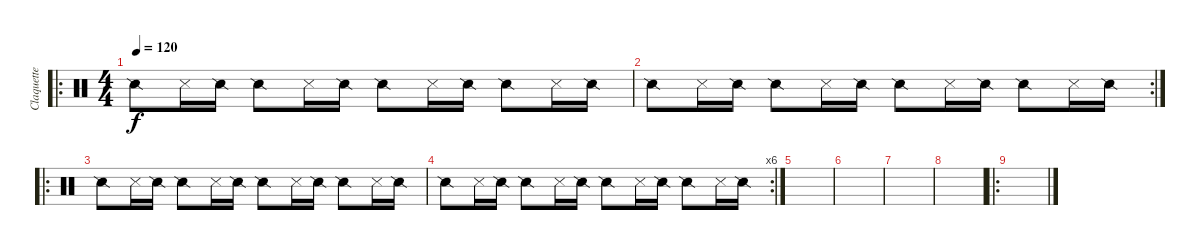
\track ("Claquette" "Claquette") {instrument percussion}
\staff {score}
\articulation defaults
\ro
\ts (4 4)
\tempo 120
\clef neutral
\ks c "Snare (side stick) 2".8{dy f} "Metronome (hit)".16 "Snare (side stick) 2".16 "Snare (side stick) 2".8 "Metronome (hit)".16 "Snare (side stick) 2".16 "Snare (side stick) 2".8 "Metronome (hit)".16 "Snare (side stick) 2".16 "Snare (side stick) 2".8 "Metronome (hit)".16 "Snare (side stick) 2".16
|
\rc 2 "Snare (side stick) 2".8 "Metronome (hit)".16 "Snare (side stick) 2".16 "Snare (side stick) 2".8 "Metronome (hit)".16 "Snare (side stick) 2".16 "Snare (side stick) 2".8 "Metronome (hit)".16 "Snare (side stick) 2".16 "Snare (side stick) 2".8 "Metronome (hit)".16 "Snare (side stick) 2".16
|
\ro "Snare (side stick) 2".8 "Metronome (hit)".16 "Snare (side stick) 2".16 "Snare (side stick) 2".8 "Metronome (hit)".16 "Snare (side stick) 2".16 "Snare (side stick) 2".8 "Metronome (hit)".16 "Snare (side stick) 2".16 "Snare (side stick) 2".8 "Metronome (hit)".16 "Snare (side stick) 2".16
|
\rc 6 "Snare (side stick) 2".8 "Metronome (hit)".16 "Snare (side stick) 2".16 "Snare (side stick) 2".8 "Metronome (hit)".16 "Snare (side stick) 2".16 "Snare (side stick) 2".8 "Metronome (hit)".16 "Snare (side stick) 2".16 "Snare (side stick) 2".8 "Metronome (hit)".16 "Snare (side stick) 2".16
|
|
|
|
|
\ro
